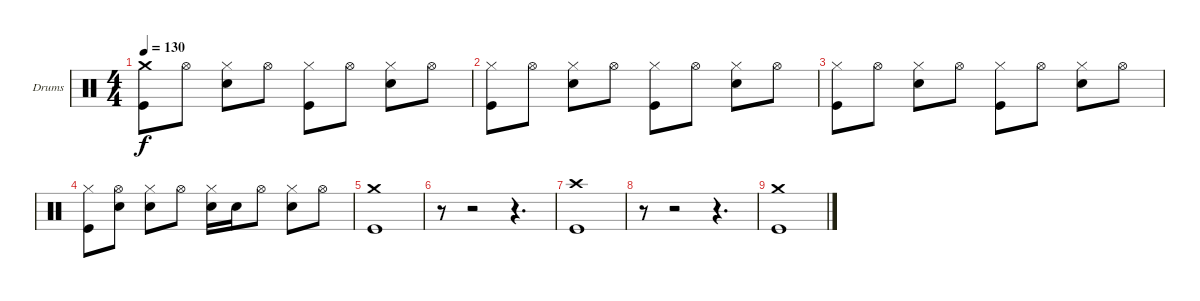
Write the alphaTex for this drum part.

\bracketExtendMode groupsimilarinstruments
\firstSystemTrackNameOrientation horizontal
\otherSystemsTrackNameOrientation horizontal
\track ("Drumkit" "Drums") {instrument percussion}
\staff {score}
\articulation defaults
\ts (4 4)
\tempo 130
\clef neutral
\ks c
("Crash medium (hit)" "Kick (hit)").8{dy f} "Hi-Hat (open)".8 ("Hi-Hat (closed)" "Snare (hit) 2").8 "Hi-Hat (open)".8 ("Hi-Hat (closed)" "Kick (hit)").8 "Hi-Hat (open)".8 ("Hi-Hat (closed)" "Snare (hit) 2").8 "Hi-Hat (open)".8 |
("Hi-Hat (closed)" "Kick (hit)").8 "Hi-Hat (open)".8 ("Hi-Hat (closed)" "Snare (hit) 2").8 "Hi-Hat (open)".8 ("Hi-Hat (closed)" "Kick (hit)").8 "Hi-Hat (open)".8 ("Hi-Hat (closed)" "Snare (hit) 2").8 "Hi-Hat (open)".8 |
("Hi-Hat (closed)" "Kick (hit)").8 "Hi-Hat (open)".8 ("Hi-Hat (closed)" "Snare (hit) 2").8 "Hi-Hat (open)".8 ("Hi-Hat (closed)" "Kick (hit)").8 "Hi-Hat (open)".8 ("Hi-Hat (closed)" "Snare (hit) 2").8 "Hi-Hat (open)".8 |
("Hi-Hat (closed)" "Kick (hit)").8 ("Hi-Hat (open)" "Snare (hit) 2").8 ("Hi-Hat (closed)" "Snare (hit) 2").8 "Hi-Hat (open)".8 ("Hi-Hat (closed)" "Snare (hit) 2").16 "Snare (hit) 2".16 "Hi-Hat (open)".8 ("Hi-Hat (closed)" "Snare (hit) 2").8 "Hi-Hat (open)".8 |
("Crash medium (hit)" "Kick (hit)").1 |
r.8 r.2 r.4{d} |
("Crash high (hit)" "Kick (hit)").1 |
r.8 r.2 r.4{d} |
("Crash medium (hit)" "Kick (hit)").1
